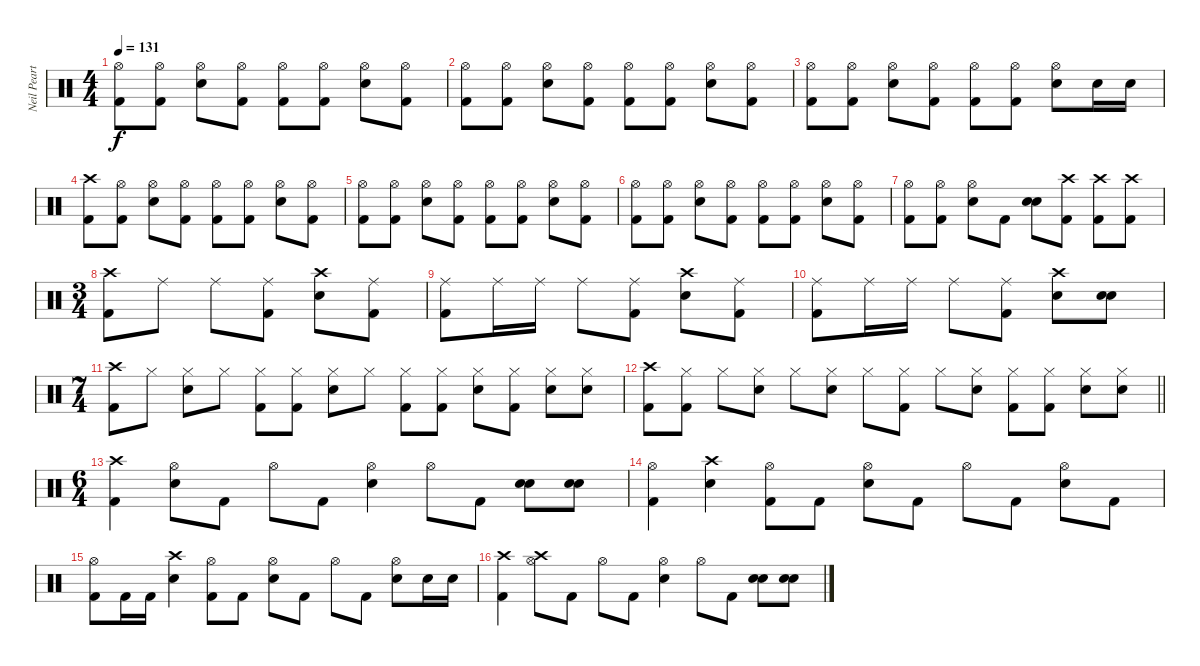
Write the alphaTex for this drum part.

\track ("Neil Peart" "Neil Peart") {instrument percussion}
\staff {score}
\articulation defaults
\ts (4 4)
\tempo 131
\clef neutral
\ks c
("Hi-Hat (open)" "Kick (hit) 2").8{dy f} ("Hi-Hat (open)" "Kick (hit) 2").8 ("Hi-Hat (open)" "Electric Snare (hit)").8 ("Hi-Hat (open)" "Kick (hit) 2").8 ("Hi-Hat (open)" "Kick (hit) 2").8 ("Hi-Hat (open)" "Kick (hit) 2").8 ("Hi-Hat (open)" "Electric Snare (hit)").8 ("Hi-Hat (open)" "Kick (hit) 2").8 |
("Hi-Hat (open)" "Kick (hit) 2").8 ("Hi-Hat (open)" "Kick (hit) 2").8 ("Hi-Hat (open)" "Electric Snare (hit)").8 ("Hi-Hat (open)" "Kick (hit) 2").8 ("Hi-Hat (open)" "Kick (hit) 2").8 ("Hi-Hat (open)" "Kick (hit) 2").8 ("Hi-Hat (open)" "Electric Snare (hit)").8 ("Hi-Hat (open)" "Kick (hit) 2").8 |
("Hi-Hat (open)" "Kick (hit) 2").8 ("Hi-Hat (open)" "Kick (hit) 2").8 ("Hi-Hat (open)" "Electric Snare (hit)").8 ("Hi-Hat (open)" "Kick (hit) 2").8 ("Hi-Hat (open)" "Kick (hit) 2").8 ("Hi-Hat (open)" "Kick (hit) 2").8 ("Hi-Hat (open)" "Electric Snare (hit)").8 "Electric Snare (hit)".16 "Electric Snare (hit)".16 |
("Crash high (hit)" "Kick (hit) 2").8 ("Hi-Hat (open)" "Kick (hit) 2").8 ("Hi-Hat (open)" "Electric Snare (hit)").8 ("Hi-Hat (open)" "Kick (hit) 2").8 ("Hi-Hat (open)" "Kick (hit) 2").8 ("Hi-Hat (open)" "Kick (hit) 2").8 ("Hi-Hat (open)" "Electric Snare (hit)").8 ("Hi-Hat (open)" "Kick (hit) 2").8 |
("Hi-Hat (open)" "Kick (hit) 2").8 ("Hi-Hat (open)" "Kick (hit) 2").8 ("Hi-Hat (open)" "Electric Snare (hit)").8 ("Hi-Hat (open)" "Kick (hit) 2").8 ("Hi-Hat (open)" "Kick (hit) 2").8 ("Hi-Hat (open)" "Kick (hit) 2").8 ("Hi-Hat (open)" "Electric Snare (hit)").8 ("Hi-Hat (open)" "Kick (hit) 2").8 |
("Hi-Hat (open)" "Kick (hit) 2").8 ("Hi-Hat (open)" "Kick (hit) 2").8 ("Hi-Hat (open)" "Electric Snare (hit)").8 ("Hi-Hat (open)" "Kick (hit) 2").8 ("Hi-Hat (open)" "Kick (hit) 2").8 ("Hi-Hat (open)" "Kick (hit) 2").8 ("Hi-Hat (open)" "Electric Snare (hit)").8 ("Hi-Hat (open)" "Kick (hit) 2").8 |
("Hi-Hat (open)" "Kick (hit) 2").8 ("Hi-Hat (open)" "Kick (hit) 2").8 ("Hi-Hat (open)" "Electric Snare (hit)").8 "Kick (hit) 2".8 ("Electric Snare (hit)" "Electric Snare (hit)").8{bd 240} ("Crash high (hit)" "Kick (hit) 2").8 ("Crash high (hit)" "Kick (hit) 2").8 ("Crash high (hit)" "Kick (hit) 2").8 |
\ts (3 4)
("Crash high (hit)" "Kick (hit) 2").8 "Ride (middle)".8 "Ride (middle)".8 ("Ride (middle)" "Kick (hit) 2").8 ("Crash high (hit)" "Electric Snare (hit)").8 ("Ride (middle)" "Kick (hit) 2").8 |
("Ride (middle)" "Kick (hit) 2").8 "Ride (middle)".16 "Ride (middle)".16 "Ride (middle)".8 ("Ride (middle)" "Kick (hit) 2").8 ("Crash high (hit)" "Electric Snare (hit)").8 ("Ride (middle)" "Kick (hit) 2").8 |
("Ride (middle)" "Kick (hit) 2").8 "Ride (middle)".16 "Ride (middle)".16 "Ride (middle)".8 ("Ride (middle)" "Kick (hit) 2").8 ("Crash high (hit)" "Electric Snare (hit)").8 ("Electric Snare (hit)" "Electric Snare (hit)").8{bd 240} |
\ts (7 4)
("Crash high (hit)" "Kick (hit) 2").8 "Hi-Hat (closed)".8 ("Hi-Hat (closed)" "Electric Snare (hit)").8 "Hi-Hat (closed)".8 ("Hi-Hat (closed)" "Kick (hit) 2").8 ("Hi-Hat (closed)" "Kick (hit) 2").8 ("Hi-Hat (closed)" "Electric Snare (hit)").8 "Hi-Hat (closed)".8 ("Hi-Hat (closed)" "Kick (hit) 2").8 ("Hi-Hat (closed)" "Kick (hit) 2").8 ("Hi-Hat (closed)" "Electric Snare (hit)").8 ("Hi-Hat (closed)" "Kick (hit) 2").8 ("Hi-Hat (closed)" "Electric Snare (hit)").8 ("Hi-Hat (closed)" "Electric Snare (hit)").8 |
\barLineRight lightlight
("Crash high (hit)" "Kick (hit) 2").8 ("Hi-Hat (closed)" "Kick (hit) 2").8 "Hi-Hat (closed)".8 ("Hi-Hat (closed)" "Electric Snare (hit)").8 "Hi-Hat (closed)".8 ("Hi-Hat (closed)" "Electric Snare (hit)").8 "Hi-Hat (closed)".8 ("Hi-Hat (closed)" "Kick (hit) 2").8 "Hi-Hat (closed)".8 ("Hi-Hat (closed)" "Electric Snare (hit)").8 ("Hi-Hat (closed)" "Kick (hit) 2").8 ("Hi-Hat (closed)" "Kick (hit) 2").8 ("Hi-Hat (closed)" "Electric Snare (hit)").8 ("Hi-Hat (closed)" "Electric Snare (hit)").8 |
\ts (6 4)
("Crash high (hit)" "Kick (hit) 2").4 ("Hi-Hat (open)" "Electric Snare (hit)").8 "Kick (hit) 2".8 "Hi-Hat (open)".8 "Kick (hit) 2".8 ("Hi-Hat (open)" "Electric Snare (hit)").4 "Hi-Hat (open)".8 "Kick (hit) 2".8 ("Electric Snare (hit)" "Electric Snare (hit)").8{bd 240} ("Electric Snare (hit)" "Electric Snare (hit)").8{bd 240} |
("Hi-Hat (open)" "Kick (hit) 2").4 ("Crash high (hit)" "Electric Snare (hit)").4 ("Hi-Hat (open)" "Kick (hit) 2").8 "Kick (hit) 2".8 ("Hi-Hat (open)" "Electric Snare (hit)").8 "Kick (hit) 2".8 "Hi-Hat (open)".8 "Kick (hit) 2".8 ("Hi-Hat (open)" "Electric Snare (hit)").8 "Kick (hit) 2".8 |
("Hi-Hat (open)" "Kick (hit) 2").8 "Kick (hit) 2".16 "Kick (hit) 2".16 ("Crash high (hit)" "Electric Snare (hit)").4 ("Hi-Hat (open)" "Kick (hit) 2").8 "Kick (hit) 2".8 ("Hi-Hat (open)" "Electric Snare (hit)").8 "Kick (hit) 2".8 "Hi-Hat (open)".8 "Kick (hit) 2".8 ("Hi-Hat (open)" "Electric Snare (hit)").8 "Electric Snare (hit)".16 "Electric Snare (hit)".16 |
("Crash high (hit)" "Kick (hit) 2").4 ("Hi-Hat (open)" "Crash high (hit)").8 "Kick (hit) 2".8 "Hi-Hat (open)".8 "Kick (hit) 2".8 ("Hi-Hat (open)" "Electric Snare (hit)").4 "Hi-Hat (open)".8 "Kick (hit) 2".8 ("Electric Snare (hit)" "Electric Snare (hit)").8{bd 240} ("Electric Snare (hit)" "Electric Snare (hit)").8{bd 240}
